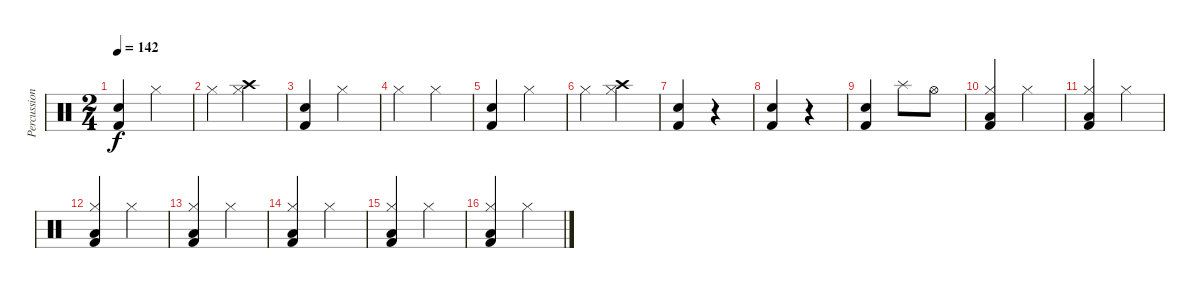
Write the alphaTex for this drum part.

\track ("Percussions" "Percussion") {instrument percussion}
\staff {score}
\articulation defaults
\ts (2 4)
\tempo 142
\clef neutral
\ks c
("Snare (hit) 2" "Kick (hit) 2").4{dy f} "Hi-Hat (closed)".4 |
"Hi-Hat (closed)".4 ("Hi-Hat (closed)" "Crash high (hit)").4 |
("Snare (hit) 2" "Kick (hit) 2").4 "Hi-Hat (closed)".4 |
"Hi-Hat (closed)".4 "Hi-Hat (closed)".4 |
("Snare (hit) 2" "Kick (hit) 2").4 "Hi-Hat (closed)".4 |
"Hi-Hat (closed)".4 ("Crash high (hit)" "Hi-Hat (closed)").4 |
("Snare (hit) 2" "Kick (hit) 2").4 r.4 |
("Snare (hit) 2" "Kick (hit) 2").4 r.4 |
("Snare (hit) 2" "Kick (hit) 2").4 "Splash (hit)".8 "Hi-Hat (open)".8 |
("Hi-Hat (closed)" "Low Tom (hit)" "Kick (hit) 2").4 "Hi-Hat (closed)".4 |
("Hi-Hat (closed)" "Low Tom (hit)" "Kick (hit) 2").4 "Hi-Hat (closed)".4 |
("Hi-Hat (closed)" "Low Tom (hit)" "Kick (hit) 2").4 "Hi-Hat (closed)".4 |
("Hi-Hat (closed)" "Low Tom (hit)" "Kick (hit) 2").4 "Hi-Hat (closed)".4 |
("Hi-Hat (closed)" "Low Tom (hit)" "Kick (hit) 2").4 "Hi-Hat (closed)".4 |
("Hi-Hat (closed)" "Low Tom (hit)" "Kick (hit) 2").4 "Hi-Hat (closed)".4 |
("Hi-Hat (closed)" "Low Tom (hit)" "Kick (hit) 2").4 "Hi-Hat (closed)".4
